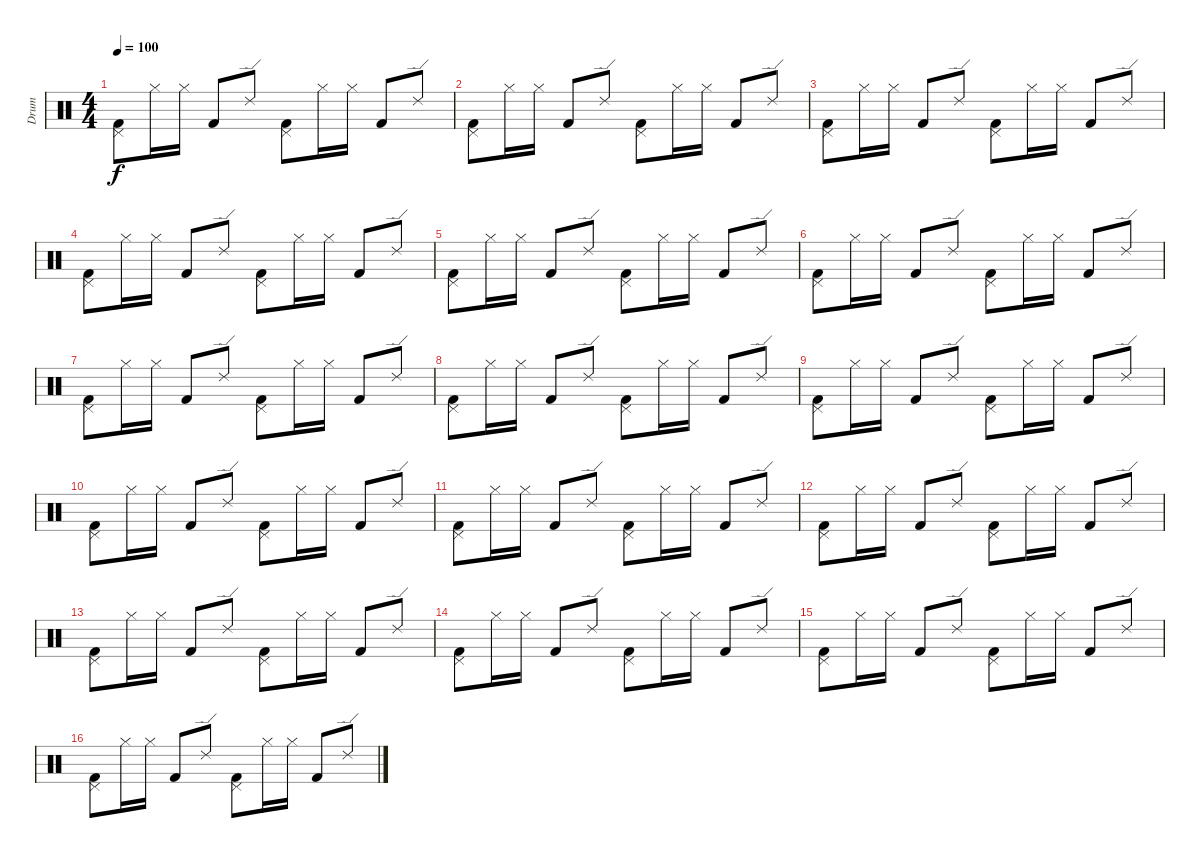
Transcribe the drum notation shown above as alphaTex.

\track ("Drum " "Drum ") {instrument percussion}
\staff {score}
\articulation defaults
\ts (4 4)
\tempo 100
\clef neutral
\ks c
("Pedal Hi-Hat (hit)" "Kick (hit) 2").8{dy f} "Hi-Hat (closed)".16 "Hi-Hat (closed)".16 "Kick (hit) 2".8 "Ride (edge) 2".8 ("Pedal Hi-Hat (hit)" "Kick (hit) 2").8 "Hi-Hat (closed)".16 "Hi-Hat (closed)".16 "Kick (hit) 2".8 "Ride (edge) 2".8 |
("Pedal Hi-Hat (hit)" "Kick (hit) 2").8 "Hi-Hat (closed)".16 "Hi-Hat (closed)".16 "Kick (hit) 2".8 "Ride (edge) 2".8 ("Pedal Hi-Hat (hit)" "Kick (hit) 2").8 "Hi-Hat (closed)".16 "Hi-Hat (closed)".16 "Kick (hit) 2".8 "Ride (edge) 2".8 |
("Pedal Hi-Hat (hit)" "Kick (hit) 2").8 "Hi-Hat (closed)".16 "Hi-Hat (closed)".16 "Kick (hit) 2".8 "Ride (edge) 2".8 ("Pedal Hi-Hat (hit)" "Kick (hit) 2").8 "Hi-Hat (closed)".16 "Hi-Hat (closed)".16 "Kick (hit) 2".8 "Ride (edge) 2".8 |
("Pedal Hi-Hat (hit)" "Kick (hit) 2").8 "Hi-Hat (closed)".16 "Hi-Hat (closed)".16 "Kick (hit) 2".8 "Ride (edge) 2".8 ("Pedal Hi-Hat (hit)" "Kick (hit) 2").8 "Hi-Hat (closed)".16 "Hi-Hat (closed)".16 "Kick (hit) 2".8 "Ride (edge) 2".8 |
("Pedal Hi-Hat (hit)" "Kick (hit) 2").8 "Hi-Hat (closed)".16 "Hi-Hat (closed)".16 "Kick (hit) 2".8 "Ride (edge) 2".8 ("Pedal Hi-Hat (hit)" "Kick (hit) 2").8 "Hi-Hat (closed)".16 "Hi-Hat (closed)".16 "Kick (hit) 2".8 "Ride (edge) 2".8 |
("Pedal Hi-Hat (hit)" "Kick (hit) 2").8 "Hi-Hat (closed)".16 "Hi-Hat (closed)".16 "Kick (hit) 2".8 "Ride (edge) 2".8 ("Pedal Hi-Hat (hit)" "Kick (hit) 2").8 "Hi-Hat (closed)".16 "Hi-Hat (closed)".16 "Kick (hit) 2".8 "Ride (edge) 2".8 |
("Pedal Hi-Hat (hit)" "Kick (hit) 2").8 "Hi-Hat (closed)".16 "Hi-Hat (closed)".16 "Kick (hit) 2".8 "Ride (edge) 2".8 ("Pedal Hi-Hat (hit)" "Kick (hit) 2").8 "Hi-Hat (closed)".16 "Hi-Hat (closed)".16 "Kick (hit) 2".8 "Ride (edge) 2".8 |
("Pedal Hi-Hat (hit)" "Kick (hit) 2").8 "Hi-Hat (closed)".16 "Hi-Hat (closed)".16 "Kick (hit) 2".8 "Ride (edge) 2".8 ("Pedal Hi-Hat (hit)" "Kick (hit) 2").8 "Hi-Hat (closed)".16 "Hi-Hat (closed)".16 "Kick (hit) 2".8 "Ride (edge) 2".8 |
("Pedal Hi-Hat (hit)" "Kick (hit) 2").8 "Hi-Hat (closed)".16 "Hi-Hat (closed)".16 "Kick (hit) 2".8 "Ride (edge) 2".8 ("Pedal Hi-Hat (hit)" "Kick (hit) 2").8 "Hi-Hat (closed)".16 "Hi-Hat (closed)".16 "Kick (hit) 2".8 "Ride (edge) 2".8 |
("Pedal Hi-Hat (hit)" "Kick (hit) 2").8 "Hi-Hat (closed)".16 "Hi-Hat (closed)".16 "Kick (hit) 2".8 "Ride (edge) 2".8 ("Pedal Hi-Hat (hit)" "Kick (hit) 2").8 "Hi-Hat (closed)".16 "Hi-Hat (closed)".16 "Kick (hit) 2".8 "Ride (edge) 2".8 |
("Pedal Hi-Hat (hit)" "Kick (hit) 2").8 "Hi-Hat (closed)".16 "Hi-Hat (closed)".16 "Kick (hit) 2".8 "Ride (edge) 2".8 ("Pedal Hi-Hat (hit)" "Kick (hit) 2").8 "Hi-Hat (closed)".16 "Hi-Hat (closed)".16 "Kick (hit) 2".8 "Ride (edge) 2".8 |
("Pedal Hi-Hat (hit)" "Kick (hit) 2").8 "Hi-Hat (closed)".16 "Hi-Hat (closed)".16 "Kick (hit) 2".8 "Ride (edge) 2".8 ("Pedal Hi-Hat (hit)" "Kick (hit) 2").8 "Hi-Hat (closed)".16 "Hi-Hat (closed)".16 "Kick (hit) 2".8 "Ride (edge) 2".8 |
("Pedal Hi-Hat (hit)" "Kick (hit) 2").8 "Hi-Hat (closed)".16 "Hi-Hat (closed)".16 "Kick (hit) 2".8 "Ride (edge) 2".8 ("Pedal Hi-Hat (hit)" "Kick (hit) 2").8 "Hi-Hat (closed)".16 "Hi-Hat (closed)".16 "Kick (hit) 2".8 "Ride (edge) 2".8 |
("Pedal Hi-Hat (hit)" "Kick (hit) 2").8 "Hi-Hat (closed)".16 "Hi-Hat (closed)".16 "Kick (hit) 2".8 "Ride (edge) 2".8 ("Pedal Hi-Hat (hit)" "Kick (hit) 2").8 "Hi-Hat (closed)".16 "Hi-Hat (closed)".16 "Kick (hit) 2".8 "Ride (edge) 2".8 |
("Pedal Hi-Hat (hit)" "Kick (hit) 2").8 "Hi-Hat (closed)".16 "Hi-Hat (closed)".16 "Kick (hit) 2".8 "Ride (edge) 2".8 ("Pedal Hi-Hat (hit)" "Kick (hit) 2").8 "Hi-Hat (closed)".16 "Hi-Hat (closed)".16 "Kick (hit) 2".8 "Ride (edge) 2".8 |
("Pedal Hi-Hat (hit)" "Kick (hit) 2").8 "Hi-Hat (closed)".16 "Hi-Hat (closed)".16 "Kick (hit) 2".8 "Ride (edge) 2".8 ("Pedal Hi-Hat (hit)" "Kick (hit) 2").8 "Hi-Hat (closed)".16 "Hi-Hat (closed)".16 "Kick (hit) 2".8 "Ride (edge) 2".8
